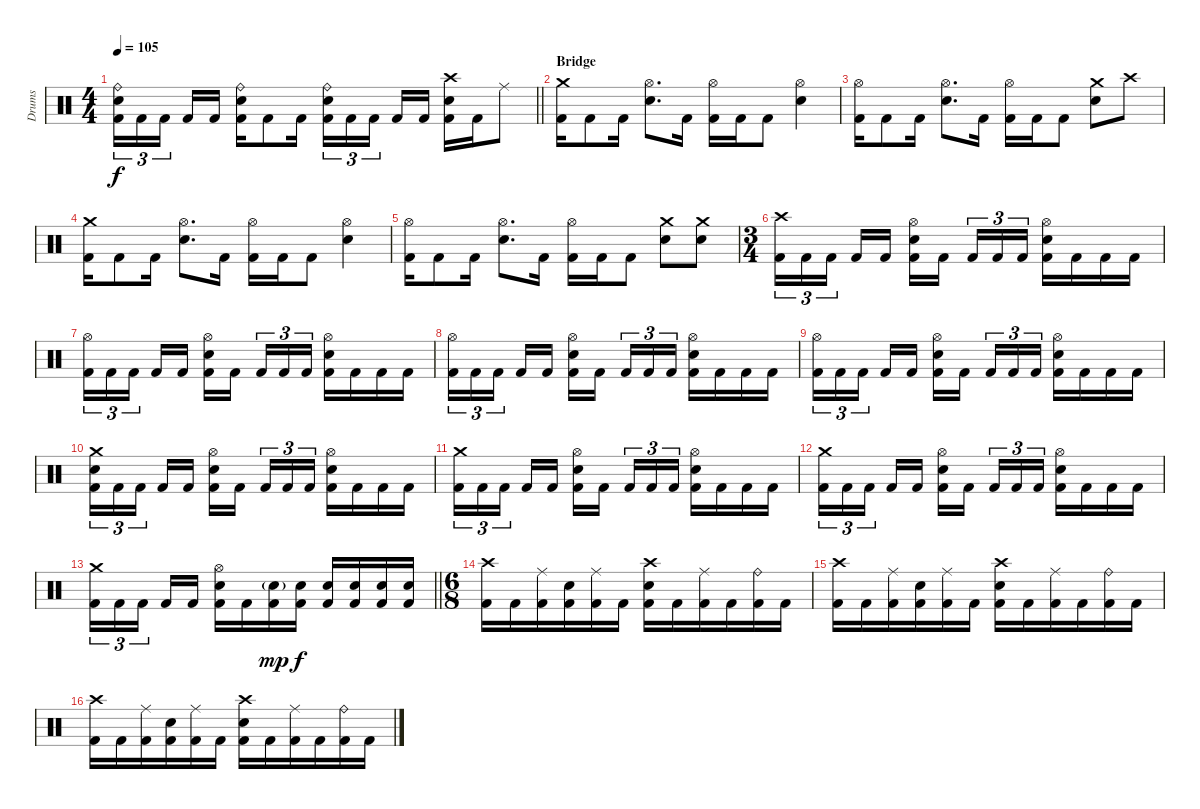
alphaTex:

\track ("Drums" "Drums") {instrument percussion}
\staff {score}
\articulation defaults
\ts (4 4)
\tempo 105
\clef neutral
\barLineRight lightlight
\ks c
("Ride (bell)" "Electric Snare (hit)" "Kick (hit) 2").16{tu (3 2) dy f} "Kick (hit) 2".16{tu (3 2)} "Kick (hit) 2".16{tu (3 2) beam splitsecondary} "Kick (hit) 2".16 "Kick (hit) 2".16 ("Ride (bell)" "Electric Snare (hit)" "Kick (hit) 2").16 "Kick (hit) 2".8 "Kick (hit) 2".16 ("Ride (bell)" "Electric Snare (hit)" "Kick (hit) 2").16{tu (3 2)} "Kick (hit) 2".16{tu (3 2)} "Kick (hit) 2".16{tu (3 2) beam splitsecondary} "Kick (hit) 2".16 "Kick (hit) 2".16 ("Crash high (hit)" "Electric Snare (hit)" "Kick (hit) 2").16 "Kick (hit) 2".16 "Ride (middle)".8 |
\section ("" "Bridge")
("Crash medium (hit)" "Kick (hit) 2").16 "Kick (hit) 2".8 "Kick (hit) 2".16 ("Hi-Hat (open)" "Electric Snare (hit)").8{d} "Kick (hit) 2".16 ("Hi-Hat (open)" "Kick (hit) 2").16 "Kick (hit) 2".16 "Kick (hit) 2".8 ("Hi-Hat (open)" "Electric Snare (hit)").4 |
("Hi-Hat (open)" "Kick (hit) 2").16 "Kick (hit) 2".8 "Kick (hit) 2".16 ("Hi-Hat (open)" "Electric Snare (hit)").8{d} "Kick (hit) 2".16 ("Hi-Hat (open)" "Kick (hit) 2").16 "Kick (hit) 2".16 "Kick (hit) 2".8 ("Crash medium (hit)" "Electric Snare (hit)").8 "Crash high (hit)".8 |
("Crash medium (hit)" "Kick (hit) 2").16 "Kick (hit) 2".8 "Kick (hit) 2".16 ("Hi-Hat (open)" "Electric Snare (hit)").8{d} "Kick (hit) 2".16 ("Hi-Hat (open)" "Kick (hit) 2").16 "Kick (hit) 2".16 "Kick (hit) 2".8 ("Hi-Hat (open)" "Electric Snare (hit)").4 |
("Hi-Hat (open)" "Kick (hit) 2").16 "Kick (hit) 2".8 "Kick (hit) 2".16 ("Hi-Hat (open)" "Electric Snare (hit)").8{d} "Kick (hit) 2".16 ("Hi-Hat (open)" "Kick (hit) 2").16 "Kick (hit) 2".16 "Kick (hit) 2".8 ("Crash medium (hit)" "Electric Snare (hit)").8 ("Crash medium (hit)" "Electric Snare (hit)").8 |
\ts (3 4)
("Crash high (hit)" "Kick (hit) 2").16{tu (3 2)} "Kick (hit) 2".16{tu (3 2)} "Kick (hit) 2".16{tu (3 2) beam splitsecondary} "Kick (hit) 2".16 "Kick (hit) 2".16 ("Hi-Hat (open)" "Electric Snare (hit)" "Kick (hit) 2").16 "Kick (hit) 2".16{beam splitsecondary} "Kick (hit) 2".16{tu (3 2)} "Kick (hit) 2".16{tu (3 2)} "Kick (hit) 2".16{tu (3 2)} ("Hi-Hat (open)" "Electric Snare (hit)" "Kick (hit) 2").16 "Kick (hit) 2".16 "Kick (hit) 2".16 "Kick (hit) 2".16 |
("Hi-Hat (open)" "Kick (hit) 2").16{tu (3 2)} "Kick (hit) 2".16{tu (3 2)} "Kick (hit) 2".16{tu (3 2) beam splitsecondary} "Kick (hit) 2".16 "Kick (hit) 2".16 ("Hi-Hat (open)" "Electric Snare (hit)" "Kick (hit) 2").16 "Kick (hit) 2".16{beam splitsecondary} "Kick (hit) 2".16{tu (3 2)} "Kick (hit) 2".16{tu (3 2)} "Kick (hit) 2".16{tu (3 2)} ("Hi-Hat (open)" "Electric Snare (hit)" "Kick (hit) 2").16 "Kick (hit) 2".16 "Kick (hit) 2".16 "Kick (hit) 2".16 |
("Hi-Hat (open)" "Kick (hit) 2").16{tu (3 2)} "Kick (hit) 2".16{tu (3 2)} "Kick (hit) 2".16{tu (3 2) beam splitsecondary} "Kick (hit) 2".16 "Kick (hit) 2".16 ("Hi-Hat (open)" "Electric Snare (hit)" "Kick (hit) 2").16 "Kick (hit) 2".16{beam splitsecondary} "Kick (hit) 2".16{tu (3 2)} "Kick (hit) 2".16{tu (3 2)} "Kick (hit) 2".16{tu (3 2)} ("Hi-Hat (open)" "Electric Snare (hit)" "Kick (hit) 2").16 "Kick (hit) 2".16 "Kick (hit) 2".16 "Kick (hit) 2".16 |
("Hi-Hat (open)" "Kick (hit) 2").16{tu (3 2)} "Kick (hit) 2".16{tu (3 2)} "Kick (hit) 2".16{tu (3 2) beam splitsecondary} "Kick (hit) 2".16 "Kick (hit) 2".16 ("Hi-Hat (open)" "Electric Snare (hit)" "Kick (hit) 2").16 "Kick (hit) 2".16{beam splitsecondary} "Kick (hit) 2".16{tu (3 2)} "Kick (hit) 2".16{tu (3 2)} "Kick (hit) 2".16{tu (3 2)} ("Hi-Hat (open)" "Electric Snare (hit)" "Kick (hit) 2").16 "Kick (hit) 2".16 "Kick (hit) 2".16 "Kick (hit) 2".16 |
("Crash medium (hit)" "Electric Snare (hit)" "Kick (hit) 2").16{tu (3 2)} "Kick (hit) 2".16{tu (3 2)} "Kick (hit) 2".16{tu (3 2) beam splitsecondary} "Kick (hit) 2".16 "Kick (hit) 2".16 ("Hi-Hat (open)" "Electric Snare (hit)" "Kick (hit) 2").16 "Kick (hit) 2".16{beam splitsecondary} "Kick (hit) 2".16{tu (3 2)} "Kick (hit) 2".16{tu (3 2)} "Kick (hit) 2".16{tu (3 2)} ("Hi-Hat (open)" "Electric Snare (hit)" "Kick (hit) 2").16 "Kick (hit) 2".16 "Kick (hit) 2".16 "Kick (hit) 2".16 |
("Crash medium (hit)" "Kick (hit) 2").16{tu (3 2)} "Kick (hit) 2".16{tu (3 2)} "Kick (hit) 2".16{tu (3 2) beam splitsecondary} "Kick (hit) 2".16 "Kick (hit) 2".16 ("Hi-Hat (open)" "Electric Snare (hit)" "Kick (hit) 2").16 "Kick (hit) 2".16{beam splitsecondary} "Kick (hit) 2".16{tu (3 2)} "Kick (hit) 2".16{tu (3 2)} "Kick (hit) 2".16{tu (3 2)} ("Hi-Hat (open)" "Electric Snare (hit)" "Kick (hit) 2").16 "Kick (hit) 2".16 "Kick (hit) 2".16 "Kick (hit) 2".16 |
("Crash medium (hit)" "Kick (hit) 2").16{tu (3 2)} "Kick (hit) 2".16{tu (3 2)} "Kick (hit) 2".16{tu (3 2) beam splitsecondary} "Kick (hit) 2".16 "Kick (hit) 2".16 ("Hi-Hat (open)" "Electric Snare (hit)" "Kick (hit) 2").16 "Kick (hit) 2".16{beam splitsecondary} "Kick (hit) 2".16{tu (3 2)} "Kick (hit) 2".16{tu (3 2)} "Kick (hit) 2".16{tu (3 2)} ("Hi-Hat (open)" "Electric Snare (hit)" "Kick (hit) 2").16 "Kick (hit) 2".16 "Kick (hit) 2".16 "Kick (hit) 2".16 |
\barLineRight lightlight
("Crash medium (hit)" "Kick (hit) 2").16{tu (3 2)} "Kick (hit) 2".16{tu (3 2)} "Kick (hit) 2".16{tu (3 2) beam splitsecondary} "Kick (hit) 2".16 "Kick (hit) 2".16 ("Hi-Hat (open)" "Electric Snare (hit)" "Kick (hit) 2").16 "Kick (hit) 2".16 ("Electric Snare (hit)"{g} "Kick (hit) 2").16{dy mp} ("Electric Snare (hit)" "Kick (hit) 2").16{dy f} ("Electric Snare (hit)" "Kick (hit) 2").16 ("Electric Snare (hit)" "Kick (hit) 2").16 ("Electric Snare (hit)" "Kick (hit) 2").16 ("Electric Snare (hit)" "Kick (hit) 2").16 |
\ts (6 8)
\section ("" "")
("Crash high (hit)" "Kick (hit) 2").16 "Kick (hit) 2".16 ("Ride (middle)" "Kick (hit) 2").16 ("Electric Snare (hit)" "Kick (hit) 2").16 ("Ride (middle)" "Kick (hit) 2").16 "Kick (hit) 2".16 ("Crash high (hit)" "Electric Snare (hit)" "Kick (hit) 2").16 "Kick (hit) 2".16 ("Ride (middle)" "Kick (hit) 2").16 "Kick (hit) 2".16 ("Ride (bell)" "Kick (hit) 2").16 "Kick (hit) 2".16 |
("Crash high (hit)" "Kick (hit) 2").16 "Kick (hit) 2".16 ("Ride (middle)" "Kick (hit) 2").16 ("Electric Snare (hit)" "Kick (hit) 2").16 ("Ride (middle)" "Kick (hit) 2").16 "Kick (hit) 2".16 ("Crash high (hit)" "Electric Snare (hit)" "Kick (hit) 2").16 "Kick (hit) 2".16 ("Ride (middle)" "Kick (hit) 2").16 "Kick (hit) 2".16 ("Ride (bell)" "Kick (hit) 2").16 "Kick (hit) 2".16 |
("Crash high (hit)" "Kick (hit) 2").16 "Kick (hit) 2".16 ("Ride (middle)" "Kick (hit) 2").16 ("Electric Snare (hit)" "Kick (hit) 2").16 ("Ride (middle)" "Kick (hit) 2").16 "Kick (hit) 2".16 ("Crash high (hit)" "Electric Snare (hit)" "Kick (hit) 2").16 "Kick (hit) 2".16 ("Ride (middle)" "Kick (hit) 2").16 "Kick (hit) 2".16 ("Ride (bell)" "Kick (hit) 2").16 "Kick (hit) 2".16
